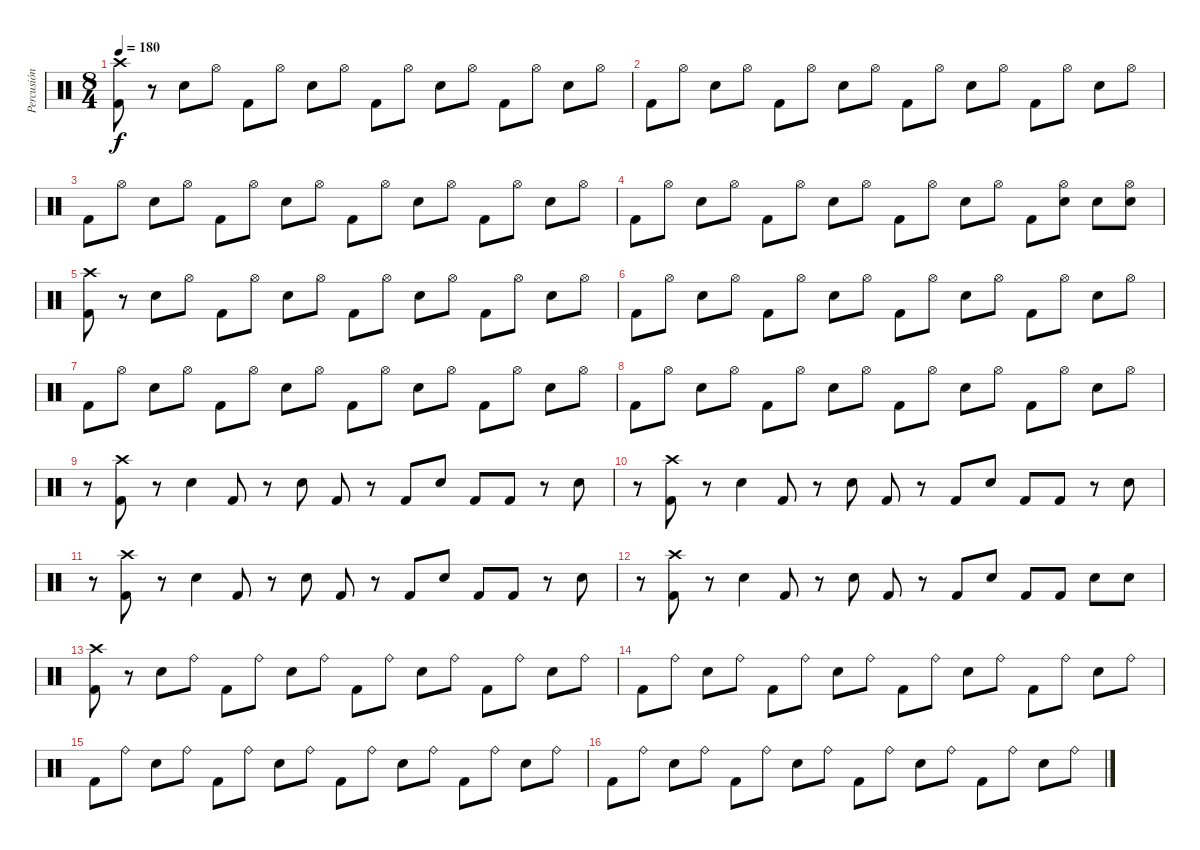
\track ("Percusión" "Percusión") {instrument percussion}
\staff {score}
\articulation defaults
\ts (8 4)
\tempo 180
\clef neutral
\ks c
("Crash high (hit)" "Kick (hit) 2").8{dy f} r.8 "Snare (hit) 2".8 "Hi-Hat (open)".8 "Kick (hit) 2".8 "Hi-Hat (open)".8 "Snare (hit) 2".8 "Hi-Hat (open)".8 "Kick (hit) 2".8 "Hi-Hat (open)".8 "Snare (hit) 2".8 "Hi-Hat (open)".8 "Kick (hit) 2".8 "Hi-Hat (open)".8 "Snare (hit) 2".8 "Hi-Hat (open)".8 |
"Kick (hit) 2".8 "Hi-Hat (open)".8 "Snare (hit) 2".8 "Hi-Hat (open)".8 "Kick (hit) 2".8 "Hi-Hat (open)".8 "Snare (hit) 2".8 "Hi-Hat (open)".8 "Kick (hit) 2".8 "Hi-Hat (open)".8 "Snare (hit) 2".8 "Hi-Hat (open)".8 "Kick (hit) 2".8 "Hi-Hat (open)".8 "Snare (hit) 2".8 "Hi-Hat (open)".8 |
"Kick (hit) 2".8 "Hi-Hat (open)".8 "Snare (hit) 2".8 "Hi-Hat (open)".8 "Kick (hit) 2".8 "Hi-Hat (open)".8 "Snare (hit) 2".8 "Hi-Hat (open)".8 "Kick (hit) 2".8 "Hi-Hat (open)".8 "Snare (hit) 2".8 "Hi-Hat (open)".8 "Kick (hit) 2".8 "Hi-Hat (open)".8 "Snare (hit) 2".8 "Hi-Hat (open)".8 |
"Kick (hit) 2".8 "Hi-Hat (open)".8 "Snare (hit) 2".8 "Hi-Hat (open)".8 "Kick (hit) 2".8 "Hi-Hat (open)".8 "Snare (hit) 2".8 "Hi-Hat (open)".8 "Kick (hit) 2".8 "Hi-Hat (open)".8 "Snare (hit) 2".8 "Hi-Hat (open)".8 "Kick (hit) 2".8 ("Hi-Hat (open)" "Snare (hit) 2").8 "Snare (hit) 2".8 ("Hi-Hat (open)" "Snare (hit) 2").8 |
("Crash high (hit)" "Kick (hit) 2").8 r.8 "Snare (hit) 2".8 "Hi-Hat (open)".8 "Kick (hit) 2".8 "Hi-Hat (open)".8 "Snare (hit) 2".8 "Hi-Hat (open)".8 "Kick (hit) 2".8 "Hi-Hat (open)".8 "Snare (hit) 2".8 "Hi-Hat (open)".8 "Kick (hit) 2".8 "Hi-Hat (open)".8 "Snare (hit) 2".8 "Hi-Hat (open)".8 |
"Kick (hit) 2".8 "Hi-Hat (open)".8 "Snare (hit) 2".8 "Hi-Hat (open)".8 "Kick (hit) 2".8 "Hi-Hat (open)".8 "Snare (hit) 2".8 "Hi-Hat (open)".8 "Kick (hit) 2".8 "Hi-Hat (open)".8 "Snare (hit) 2".8 "Hi-Hat (open)".8 "Kick (hit) 2".8 "Hi-Hat (open)".8 "Snare (hit) 2".8 "Hi-Hat (open)".8 |
"Kick (hit) 2".8 "Hi-Hat (open)".8 "Snare (hit) 2".8 "Hi-Hat (open)".8 "Kick (hit) 2".8 "Hi-Hat (open)".8 "Snare (hit) 2".8 "Hi-Hat (open)".8 "Kick (hit) 2".8 "Hi-Hat (open)".8 "Snare (hit) 2".8 "Hi-Hat (open)".8 "Kick (hit) 2".8 "Hi-Hat (open)".8 "Snare (hit) 2".8 "Hi-Hat (open)".8 |
"Kick (hit) 2".8 "Hi-Hat (open)".8 "Snare (hit) 2".8 "Hi-Hat (open)".8 "Kick (hit) 2".8 "Hi-Hat (open)".8 "Snare (hit) 2".8 "Hi-Hat (open)".8 "Kick (hit) 2".8 "Hi-Hat (open)".8 "Snare (hit) 2".8 "Hi-Hat (open)".8 "Kick (hit) 2".8 "Hi-Hat (open)".8 "Snare (hit) 2".8 "Hi-Hat (open)".8 |
r.8 ("Kick (hit) 2" "Crash high (hit)").8 r.8 "Snare (hit) 2".4 "Kick (hit) 2".8 r.8 "Snare (hit) 2".8 "Kick (hit) 2".8 r.8 "Kick (hit) 2".8 "Snare (hit) 2".8 "Kick (hit) 2".8 "Kick (hit) 2".8 r.8 "Snare (hit) 2".8 |
r.8 ("Kick (hit) 2" "Crash high (hit)").8 r.8 "Snare (hit) 2".4 "Kick (hit) 2".8 r.8 "Snare (hit) 2".8 "Kick (hit) 2".8 r.8 "Kick (hit) 2".8 "Snare (hit) 2".8 "Kick (hit) 2".8 "Kick (hit) 2".8 r.8 "Snare (hit) 2".8 |
r.8 ("Kick (hit) 2" "Crash high (hit)").8 r.8 "Snare (hit) 2".4 "Kick (hit) 2".8 r.8 "Snare (hit) 2".8 "Kick (hit) 2".8 r.8 "Kick (hit) 2".8 "Snare (hit) 2".8 "Kick (hit) 2".8 "Kick (hit) 2".8 r.8 "Snare (hit) 2".8 |
r.8 ("Kick (hit) 2" "Crash high (hit)").8 r.8 "Snare (hit) 2".4 "Kick (hit) 2".8 r.8 "Snare (hit) 2".8 "Kick (hit) 2".8 r.8 "Kick (hit) 2".8 "Snare (hit) 2".8 "Kick (hit) 2".8 "Kick (hit) 2".8 "Snare (hit) 2".8 "Snare (hit) 2".8 |
("Crash high (hit)" "Kick (hit) 2").8 r.8 "Snare (hit) 2".8 "Ride (bell)".8 "Kick (hit) 2".8 "Ride (bell)".8 "Snare (hit) 2".8 "Ride (bell)".8 "Kick (hit) 2".8 "Ride (bell)".8 "Snare (hit) 2".8 "Ride (bell)".8 "Kick (hit) 2".8 "Ride (bell)".8 "Snare (hit) 2".8 "Ride (bell)".8 |
"Kick (hit) 2".8 "Ride (bell)".8 "Snare (hit) 2".8 "Ride (bell)".8 "Kick (hit) 2".8 "Ride (bell)".8 "Snare (hit) 2".8 "Ride (bell)".8 "Kick (hit) 2".8 "Ride (bell)".8 "Snare (hit) 2".8 "Ride (bell)".8 "Kick (hit) 2".8 "Ride (bell)".8 "Snare (hit) 2".8 "Ride (bell)".8 |
"Kick (hit) 2".8 "Ride (bell)".8 "Snare (hit) 2".8 "Ride (bell)".8 "Kick (hit) 2".8 "Ride (bell)".8 "Snare (hit) 2".8 "Ride (bell)".8 "Kick (hit) 2".8 "Ride (bell)".8 "Snare (hit) 2".8 "Ride (bell)".8 "Kick (hit) 2".8 "Ride (bell)".8 "Snare (hit) 2".8 "Ride (bell)".8 |
"Kick (hit) 2".8 "Ride (bell)".8 "Snare (hit) 2".8 "Ride (bell)".8 "Kick (hit) 2".8 "Ride (bell)".8 "Snare (hit) 2".8 "Ride (bell)".8 "Kick (hit) 2".8 "Ride (bell)".8 "Snare (hit) 2".8 "Ride (bell)".8 "Kick (hit) 2".8 "Ride (bell)".8 "Snare (hit) 2".8 "Ride (bell)".8
